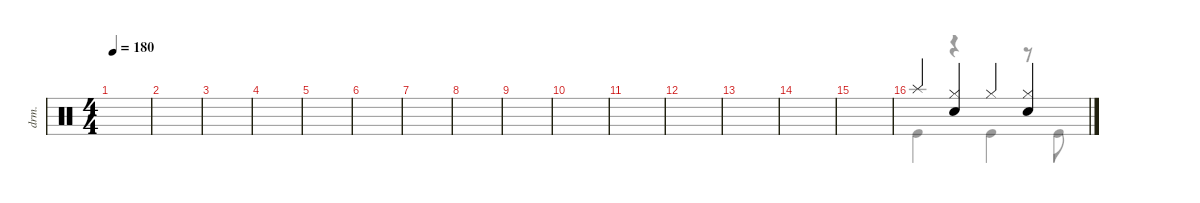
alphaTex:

\defaultSystemsLayout 4
\hideDynamics
\bracketExtendMode nobrackets
\otherSystemsTrackNameOrientation horizontal
\track ("Drumkit" "drm.") {instrument percussion}
\staff {score}
\articulation defaults
\voice
\ts (4 4)
\tempo 180
\clef neutral
\ks c
|
|
|
|
|
|
|
|
|
|
|
|
|
|
|
"Splash (hit)".4 ("Hi-Hat (closed)" "Snare (hit) 2").4 "Hi-Hat (closed)".4 ("Hi-Hat (closed)" "Snare (hit) 2").4
\voice
\clef neutral
\ottava regular
\simile none
\ks c
|
|
|
|
|
|
|
|
|
|
|
|
|
|
|
"Kick (hit)".4 r.4 "Kick (hit)".4 r.8 "Kick (hit)".8
